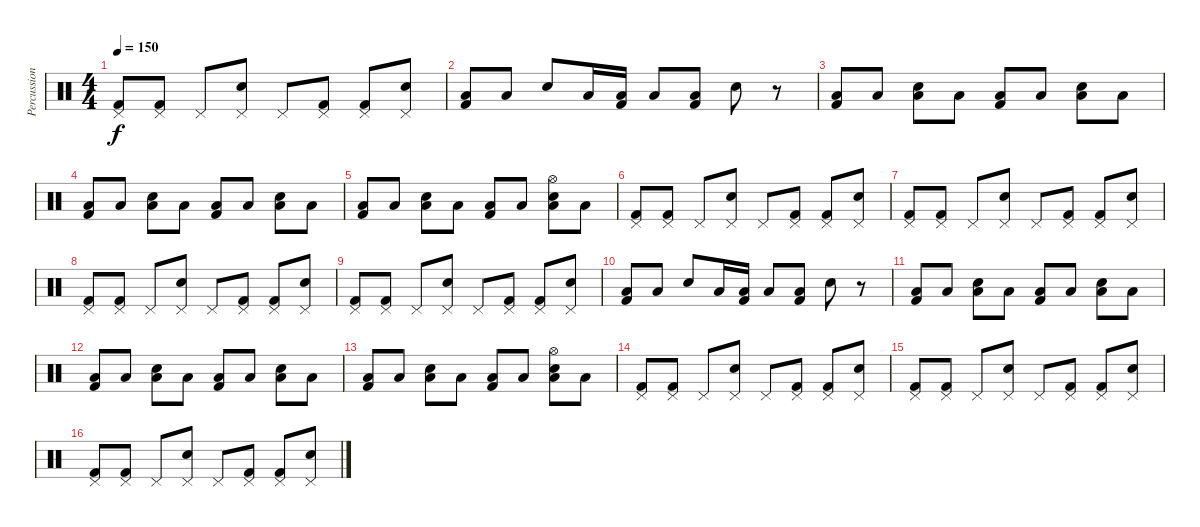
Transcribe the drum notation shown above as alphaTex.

\track ("Percussion" "Percussion") {instrument percussion}
\staff {score}
\articulation defaults
\ts (4 4)
\tempo 150
\clef neutral
\ks c
("Pedal Hi-Hat (hit)" "Kick (hit) 2").8{dy f} ("Pedal Hi-Hat (hit)" "Kick (hit) 2").8 "Pedal Hi-Hat (hit)".8 ("Pedal Hi-Hat (hit)" "Electric Snare (hit)").8 "Pedal Hi-Hat (hit)".8 ("Pedal Hi-Hat (hit)" "Kick (hit) 2").8 ("Pedal Hi-Hat (hit)" "Kick (hit) 2").8 ("Pedal Hi-Hat (hit)" "Electric Snare (hit)").8 |
("Low Floor Tom (hit)" "Kick (hit) 2").8 "Low Floor Tom (hit)".8 "Electric Snare (hit)".8 "Low Floor Tom (hit)".16 ("Low Floor Tom (hit)" "Kick (hit) 2").16 "Low Floor Tom (hit)".8 ("Low Floor Tom (hit)" "Kick (hit) 2").8 "Electric Snare (hit)".8 r.8 |
("Low Floor Tom (hit)" "Kick (hit) 2").8 "Low Floor Tom (hit)".8 ("Low Floor Tom (hit)" "Electric Snare (hit)").8 "Low Floor Tom (hit)".8 ("Low Floor Tom (hit)" "Kick (hit) 2").8 "Low Floor Tom (hit)".8 ("Low Floor Tom (hit)" "Electric Snare (hit)").8 "Low Floor Tom (hit)".8 |
("Low Floor Tom (hit)" "Kick (hit) 2").8 "Low Floor Tom (hit)".8 ("Low Floor Tom (hit)" "Electric Snare (hit)").8 "Low Floor Tom (hit)".8 ("Low Floor Tom (hit)" "Kick (hit) 2").8 "Low Floor Tom (hit)".8 ("Low Floor Tom (hit)" "Electric Snare (hit)").8 "Low Floor Tom (hit)".8 |
("Low Floor Tom (hit)" "Kick (hit) 2").8 "Low Floor Tom (hit)".8 ("Low Floor Tom (hit)" "Electric Snare (hit)").8 "Low Floor Tom (hit)".8 ("Low Floor Tom (hit)" "Kick (hit) 2").8 "Low Floor Tom (hit)".8 ("Hi-Hat (open)" "Low Floor Tom (hit)" "Electric Snare (hit)").8 "Low Floor Tom (hit)".8 |
("Pedal Hi-Hat (hit)" "Kick (hit) 2").8 ("Pedal Hi-Hat (hit)" "Kick (hit) 2").8 "Pedal Hi-Hat (hit)".8 ("Pedal Hi-Hat (hit)" "Electric Snare (hit)").8 "Pedal Hi-Hat (hit)".8 ("Pedal Hi-Hat (hit)" "Kick (hit) 2").8 ("Pedal Hi-Hat (hit)" "Kick (hit) 2").8 ("Pedal Hi-Hat (hit)" "Electric Snare (hit)").8 |
("Pedal Hi-Hat (hit)" "Kick (hit) 2").8 ("Pedal Hi-Hat (hit)" "Kick (hit) 2").8 "Pedal Hi-Hat (hit)".8 ("Pedal Hi-Hat (hit)" "Electric Snare (hit)").8 "Pedal Hi-Hat (hit)".8 ("Pedal Hi-Hat (hit)" "Kick (hit) 2").8 ("Pedal Hi-Hat (hit)" "Kick (hit) 2").8 ("Pedal Hi-Hat (hit)" "Electric Snare (hit)").8 |
("Pedal Hi-Hat (hit)" "Kick (hit) 2").8 ("Pedal Hi-Hat (hit)" "Kick (hit) 2").8 "Pedal Hi-Hat (hit)".8 ("Pedal Hi-Hat (hit)" "Electric Snare (hit)").8 "Pedal Hi-Hat (hit)".8 ("Pedal Hi-Hat (hit)" "Kick (hit) 2").8 ("Pedal Hi-Hat (hit)" "Kick (hit) 2").8 ("Pedal Hi-Hat (hit)" "Electric Snare (hit)").8 |
("Pedal Hi-Hat (hit)" "Kick (hit) 2").8 ("Pedal Hi-Hat (hit)" "Kick (hit) 2").8 "Pedal Hi-Hat (hit)".8 ("Pedal Hi-Hat (hit)" "Electric Snare (hit)").8 "Pedal Hi-Hat (hit)".8 ("Pedal Hi-Hat (hit)" "Kick (hit) 2").8 ("Pedal Hi-Hat (hit)" "Kick (hit) 2").8 ("Pedal Hi-Hat (hit)" "Electric Snare (hit)").8 |
("Low Floor Tom (hit)" "Kick (hit) 2").8 "Low Floor Tom (hit)".8 "Electric Snare (hit)".8 "Low Floor Tom (hit)".16 ("Low Floor Tom (hit)" "Kick (hit) 2").16 "Low Floor Tom (hit)".8 ("Low Floor Tom (hit)" "Kick (hit) 2").8 "Electric Snare (hit)".8 r.8 |
("Low Floor Tom (hit)" "Kick (hit) 2").8 "Low Floor Tom (hit)".8 ("Low Floor Tom (hit)" "Electric Snare (hit)").8 "Low Floor Tom (hit)".8 ("Low Floor Tom (hit)" "Kick (hit) 2").8 "Low Floor Tom (hit)".8 ("Low Floor Tom (hit)" "Electric Snare (hit)").8 "Low Floor Tom (hit)".8 |
("Low Floor Tom (hit)" "Kick (hit) 2").8 "Low Floor Tom (hit)".8 ("Low Floor Tom (hit)" "Electric Snare (hit)").8 "Low Floor Tom (hit)".8 ("Low Floor Tom (hit)" "Kick (hit) 2").8 "Low Floor Tom (hit)".8 ("Low Floor Tom (hit)" "Electric Snare (hit)").8 "Low Floor Tom (hit)".8 |
("Low Floor Tom (hit)" "Kick (hit) 2").8 "Low Floor Tom (hit)".8 ("Low Floor Tom (hit)" "Electric Snare (hit)").8 "Low Floor Tom (hit)".8 ("Low Floor Tom (hit)" "Kick (hit) 2").8 "Low Floor Tom (hit)".8 ("Hi-Hat (open)" "Low Floor Tom (hit)" "Electric Snare (hit)").8 "Low Floor Tom (hit)".8 |
("Pedal Hi-Hat (hit)" "Kick (hit) 2").8 ("Pedal Hi-Hat (hit)" "Kick (hit) 2").8 "Pedal Hi-Hat (hit)".8 ("Pedal Hi-Hat (hit)" "Electric Snare (hit)").8 "Pedal Hi-Hat (hit)".8 ("Pedal Hi-Hat (hit)" "Kick (hit) 2").8 ("Pedal Hi-Hat (hit)" "Kick (hit) 2").8 ("Pedal Hi-Hat (hit)" "Electric Snare (hit)").8 |
("Pedal Hi-Hat (hit)" "Kick (hit) 2").8 ("Pedal Hi-Hat (hit)" "Kick (hit) 2").8 "Pedal Hi-Hat (hit)".8 ("Pedal Hi-Hat (hit)" "Electric Snare (hit)").8 "Pedal Hi-Hat (hit)".8 ("Pedal Hi-Hat (hit)" "Kick (hit) 2").8 ("Pedal Hi-Hat (hit)" "Kick (hit) 2").8 ("Pedal Hi-Hat (hit)" "Electric Snare (hit)").8 |
("Pedal Hi-Hat (hit)" "Kick (hit) 2").8 ("Pedal Hi-Hat (hit)" "Kick (hit) 2").8 "Pedal Hi-Hat (hit)".8 ("Pedal Hi-Hat (hit)" "Electric Snare (hit)").8 "Pedal Hi-Hat (hit)".8 ("Pedal Hi-Hat (hit)" "Kick (hit) 2").8 ("Pedal Hi-Hat (hit)" "Kick (hit) 2").8 ("Pedal Hi-Hat (hit)" "Electric Snare (hit)").8
